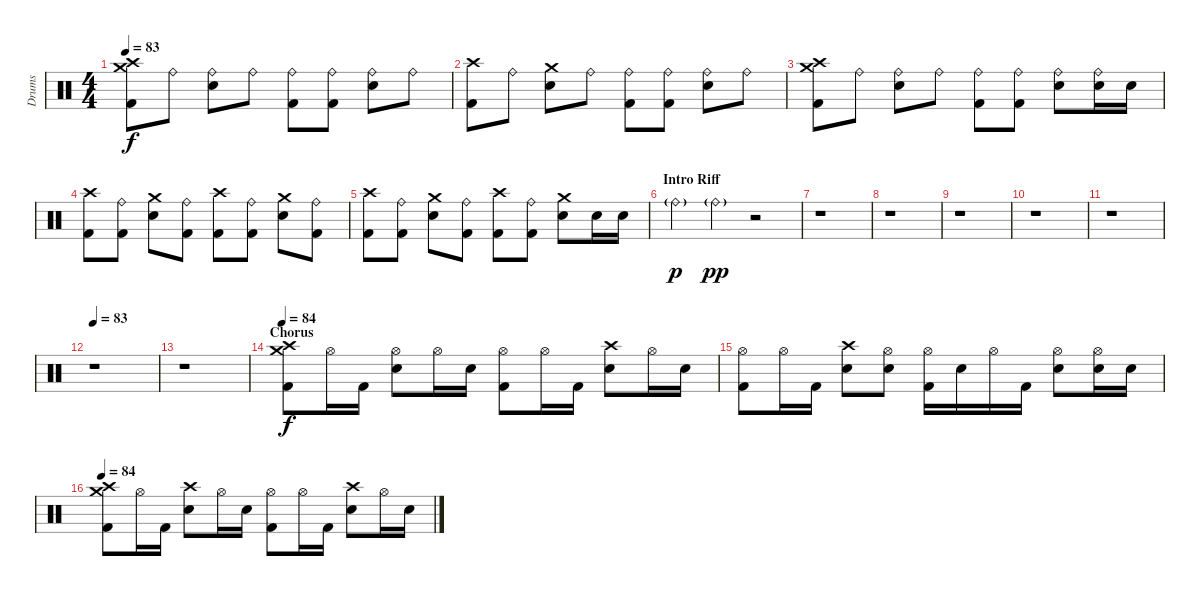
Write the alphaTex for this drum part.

\track ("Drums" "Drums") {instrument percussion}
\staff {score}
\articulation defaults
\ts (4 4)
\tempo 83
\clef neutral
\ks c
("Crash high (hit)" "Crash medium (hit)" "Kick (hit) 2").8{dy f} "Ride (bell)".8 ("Ride (bell)" "Electric Snare (hit)").8 "Ride (bell)".8 ("Ride (bell)" "Kick (hit) 2").8 ("Ride (bell)" "Kick (hit) 2").8 ("Ride (bell)" "Electric Snare (hit)").8 "Ride (bell)".8 |
("Crash high (hit)" "Kick (hit) 2").8 "Ride (bell)".8 ("Crash medium (hit)" "Electric Snare (hit)").8 "Ride (bell)".8 ("Ride (bell)" "Kick (hit) 2").8 ("Ride (bell)" "Kick (hit) 2").8 ("Ride (bell)" "Electric Snare (hit)").8 "Ride (bell)".8 |
("Crash high (hit)" "Crash medium (hit)" "Kick (hit) 2").8 "Ride (bell)".8 ("Ride (bell)" "Electric Snare (hit)").8 "Ride (bell)".8 ("Ride (bell)" "Kick (hit) 2").8 ("Ride (bell)" "Kick (hit) 2").8 ("Ride (bell)" "Electric Snare (hit)").8 ("Ride (bell)" "Electric Snare (hit)").16 "Electric Snare (hit)".16 |
("Crash high (hit)" "Kick (hit) 2").8 ("Ride (bell)" "Kick (hit) 2").8 ("Crash medium (hit)" "Electric Snare (hit)").8 ("Ride (bell)" "Kick (hit) 2").8 ("Crash high (hit)" "Kick (hit) 2").8 ("Ride (bell)" "Kick (hit) 2").8 ("Crash medium (hit)" "Electric Snare (hit)").8 ("Ride (bell)" "Kick (hit) 2").8 |
("Crash high (hit)" "Kick (hit) 2").8 ("Ride (bell)" "Kick (hit) 2").8 ("Crash medium (hit)" "Electric Snare (hit)").8 ("Ride (bell)" "Kick (hit) 2").8 ("Crash high (hit)" "Kick (hit) 2").8 ("Ride (bell)" "Kick (hit) 2").8 ("Crash medium (hit)" "Electric Snare (hit)").8 "Electric Snare (hit)".16 "Electric Snare (hit)".16 |
\section ("" "Intro Riff")
"Ride (bell)"{g}.4{dy p} "Ride (bell)"{g}.4{dy pp} r.2 |
r.1 |
r.1 |
r.1 |
r.1 |
r.1 |
\tempo 83
r.1 |
r.1 |
\section ("" "Chorus")
\tempo 84
("Crash high (hit)" "Crash medium (hit)" "Kick (hit) 2").8{dy f} "Hi-Hat (open)".16 "Kick (hit) 2".16 ("Hi-Hat (open)" "Electric Snare (hit)").8 "Hi-Hat (open)".16 "Electric Snare (hit)".16 ("Hi-Hat (open)" "Kick (hit) 2").8 "Hi-Hat (open)".16 "Kick (hit) 2".16 ("Crash high (hit)" "Electric Snare (hit)").8 "Hi-Hat (open)".16 "Electric Snare (hit)".16 |
("Hi-Hat (open)" "Kick (hit) 2").8 "Hi-Hat (open)".16 "Kick (hit) 2".16 ("Crash high (hit)" "Electric Snare (hit)").8 ("Hi-Hat (open)" "Electric Snare (hit)").8 ("Hi-Hat (open)" "Kick (hit) 2").16 "Electric Snare (hit)".16 "Hi-Hat (open)".16 "Kick (hit) 2".16 ("Hi-Hat (open)" "Electric Snare (hit)").8 ("Hi-Hat (open)" "Electric Snare (hit)").16 "Electric Snare (hit)".16 |
\tempo 84
("Crash high (hit)" "Crash medium (hit)" "Kick (hit) 2").8 "Hi-Hat (open)".16 "Kick (hit) 2".16 ("Crash high (hit)" "Electric Snare (hit)").8 "Hi-Hat (open)".16 "Electric Snare (hit)".16 ("Hi-Hat (open)" "Kick (hit) 2").8 "Hi-Hat (open)".16 "Kick (hit) 2".16 ("Crash high (hit)" "Electric Snare (hit)").8 "Hi-Hat (open)".16 "Electric Snare (hit)".16
